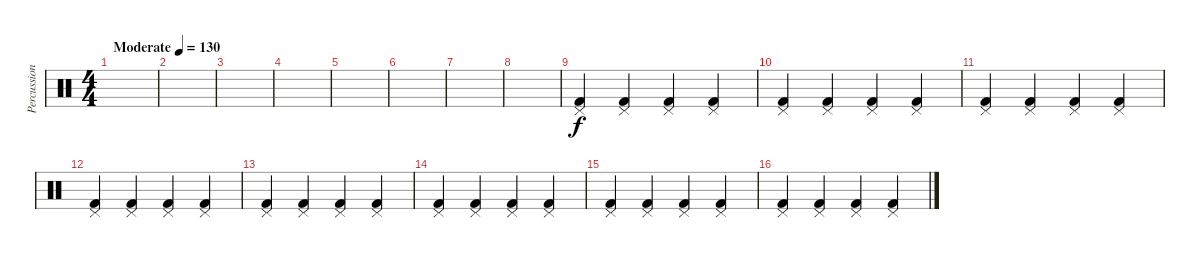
\track ("Percussion" "Percussion") {instrument percussion}
\staff {score}
\articulation defaults
\ts (4 4)
\tempo (130 "Moderate")
\clef neutral
\ks c
|
|
|
|
|
|
|
|
("Kick (hit) 2" "Pedal Hi-Hat (hit)").4 ("Kick (hit) 2" "Pedal Hi-Hat (hit)").4 ("Kick (hit) 2" "Pedal Hi-Hat (hit)").4 ("Kick (hit) 2" "Pedal Hi-Hat (hit)").4 |
("Kick (hit) 2" "Pedal Hi-Hat (hit)").4 ("Kick (hit) 2" "Pedal Hi-Hat (hit)").4 ("Kick (hit) 2" "Pedal Hi-Hat (hit)").4 ("Kick (hit) 2" "Pedal Hi-Hat (hit)").4 |
("Kick (hit) 2" "Pedal Hi-Hat (hit)").4 ("Kick (hit) 2" "Pedal Hi-Hat (hit)").4 ("Kick (hit) 2" "Pedal Hi-Hat (hit)").4 ("Kick (hit) 2" "Pedal Hi-Hat (hit)").4 |
("Kick (hit) 2" "Pedal Hi-Hat (hit)").4 ("Kick (hit) 2" "Pedal Hi-Hat (hit)").4 ("Kick (hit) 2" "Pedal Hi-Hat (hit)").4 ("Kick (hit) 2" "Pedal Hi-Hat (hit)").4 |
("Kick (hit) 2" "Pedal Hi-Hat (hit)").4 ("Kick (hit) 2" "Pedal Hi-Hat (hit)").4 ("Kick (hit) 2" "Pedal Hi-Hat (hit)").4 ("Kick (hit) 2" "Pedal Hi-Hat (hit)").4 |
("Kick (hit) 2" "Pedal Hi-Hat (hit)").4 ("Kick (hit) 2" "Pedal Hi-Hat (hit)").4 ("Kick (hit) 2" "Pedal Hi-Hat (hit)").4 ("Kick (hit) 2" "Pedal Hi-Hat (hit)").4 |
("Kick (hit) 2" "Pedal Hi-Hat (hit)").4 ("Kick (hit) 2" "Pedal Hi-Hat (hit)").4 ("Kick (hit) 2" "Pedal Hi-Hat (hit)").4 ("Kick (hit) 2" "Pedal Hi-Hat (hit)").4 |
("Kick (hit) 2" "Pedal Hi-Hat (hit)").4 ("Kick (hit) 2" "Pedal Hi-Hat (hit)").4 ("Kick (hit) 2" "Pedal Hi-Hat (hit)").4 ("Kick (hit) 2" "Pedal Hi-Hat (hit)").4
